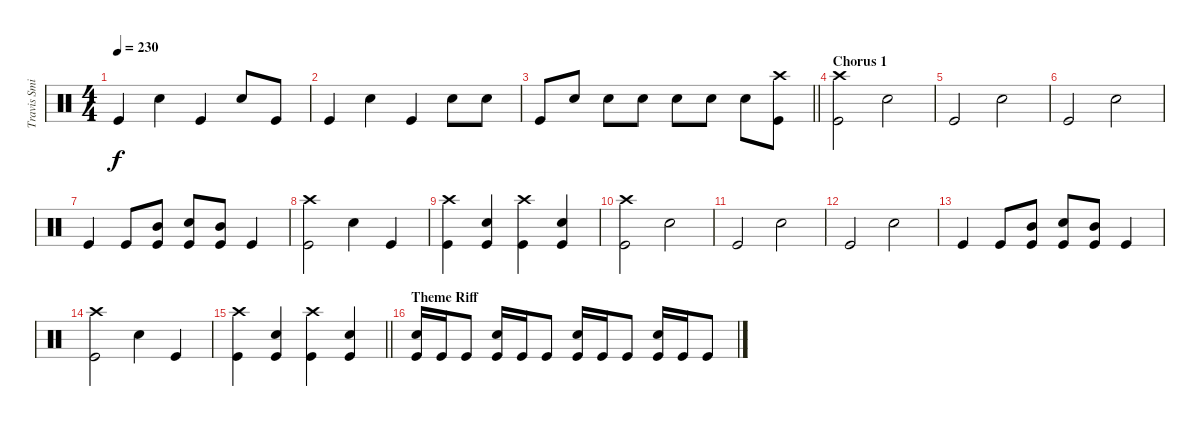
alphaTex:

\track ("Travis Smith" "Travis Smi") {instrument percussion}
\staff {score}
\articulation defaults
\ts (4 4)
\tempo 230
\clef neutral
\ks c "Kick (hit)".4{dy f} "Snare (hit) 2".4 "Kick (hit)".4 "Snare (hit) 2".8 "Kick (hit)".8
|
"Kick (hit)".4 "Snare (hit) 2".4 "Kick (hit)".4 "Snare (hit) 2".8 "Snare (hit) 2".8 |
\barLineRight lightlight "Kick (hit)".8 "Snare (hit) 2".8 "Snare (hit) 2".8 "Snare (hit) 2".8 "Snare (hit) 2".8 "Snare (hit) 2".8 "Snare (hit) 2".8
("Crash high (hit)" "Kick (hit)").8 |
\section ("" "Chorus 1")
("Crash high (hit)" "Kick (hit)").2 "Snare (hit) 2".2 |
"Kick (hit)".2 "Snare (hit) 2".2 |
"Kick (hit)".2 "Snare (hit) 2".2 |
"Kick (hit)".4 "Kick (hit)".8 ("Mid Tom (hit)" "Kick (hit)").8 ("Snare (hit) 2" "Kick (hit)").8 ("Mid Tom (hit)" "Kick (hit)").8 "Kick (hit)".4 |
("Crash high (hit)" "Kick (hit)").2 "Snare (hit) 2".4 "Kick (hit)".4 |
("Crash high (hit)" "Kick (hit)").4 ("Snare (hit) 2" "Kick (hit)").4 ("Crash high (hit)" "Kick (hit)").4 ("Snare (hit) 2" "Kick (hit)").4 |
("Crash high (hit)" "Kick (hit)").2 "Snare (hit) 2".2 |
"Kick (hit)".2 "Snare (hit) 2".2 |
"Kick (hit)".2 "Snare (hit) 2".2 |
"Kick (hit)".4 "Kick (hit)".8 ("Mid Tom (hit)" "Kick (hit)").8 ("Snare (hit) 2" "Kick (hit)").8 ("Mid Tom (hit)" "Kick (hit)").8 "Kick (hit)".4 |
("Crash high (hit)" "Kick (hit)").2 "Snare (hit) 2".4 "Kick (hit)".4 |
\barLineRight lightlight
("Crash high (hit)" "Kick (hit)").4 ("Snare (hit) 2" "Kick (hit)").4 ("Crash high (hit)" "Kick (hit)").4 ("Snare (hit) 2" "Kick (hit)").4 |
\section ("" "Theme Riff")
("Snare (hit) 2" "Kick (hit)").16 "Kick (hit)".16 "Kick (hit)".8 ("Snare (hit) 2" "Kick (hit)").16 "Kick (hit)".16 "Kick (hit)".8 ("Snare (hit) 2" "Kick (hit)").16 "Kick (hit)".16 "Kick (hit)".8 ("Snare (hit) 2" "Kick (hit)").16 "Kick (hit)".16 "Kick (hit)".8
